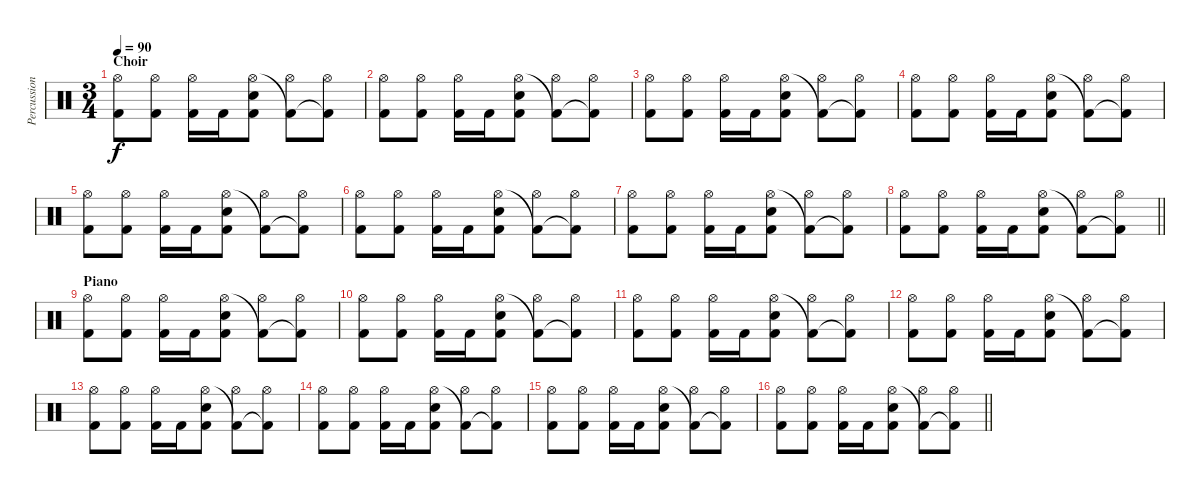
\track ("Percussioni" "Percussion") {instrument percussion}
\staff {score}
\articulation defaults
\ts (3 4)
\section ("" "Choir")
\tempo 90
\clef neutral
\ks c
("Hi-Hat (open)" "Kick (hit) 2").8{dy f} ("Hi-Hat (open)" "Kick (hit) 2").8 ("Hi-Hat (open)" "Kick (hit) 2").16 "Kick (hit) 2".16 ("Snare (hit) 2" "Hi-Hat (open)" "Kick (hit) 2").8 ("Hi-Hat (open)" "Kick (hit) 2"{t}).8 ("Hi-Hat (open)" "Kick (hit) 2"{t}).8 |
("Hi-Hat (open)" "Kick (hit) 2").8 ("Hi-Hat (open)" "Kick (hit) 2").8 ("Hi-Hat (open)" "Kick (hit) 2").16 "Kick (hit) 2".16 ("Snare (hit) 2" "Hi-Hat (open)" "Kick (hit) 2").8 ("Hi-Hat (open)" "Kick (hit) 2"{t}).8 ("Hi-Hat (open)" "Kick (hit) 2"{t}).8 |
("Hi-Hat (open)" "Kick (hit) 2").8 ("Hi-Hat (open)" "Kick (hit) 2").8 ("Hi-Hat (open)" "Kick (hit) 2").16 "Kick (hit) 2".16 ("Snare (hit) 2" "Hi-Hat (open)" "Kick (hit) 2").8 ("Hi-Hat (open)" "Kick (hit) 2"{t}).8 ("Hi-Hat (open)" "Kick (hit) 2"{t}).8 |
("Hi-Hat (open)" "Kick (hit) 2").8 ("Hi-Hat (open)" "Kick (hit) 2").8 ("Hi-Hat (open)" "Kick (hit) 2").16 "Kick (hit) 2".16 ("Snare (hit) 2" "Hi-Hat (open)" "Kick (hit) 2").8 ("Hi-Hat (open)" "Kick (hit) 2"{t}).8 ("Hi-Hat (open)" "Kick (hit) 2"{t}).8 |
("Hi-Hat (open)" "Kick (hit) 2").8 ("Hi-Hat (open)" "Kick (hit) 2").8 ("Hi-Hat (open)" "Kick (hit) 2").16 "Kick (hit) 2".16 ("Snare (hit) 2" "Hi-Hat (open)" "Kick (hit) 2").8 ("Hi-Hat (open)" "Kick (hit) 2"{t}).8 ("Hi-Hat (open)" "Kick (hit) 2"{t}).8 |
("Hi-Hat (open)" "Kick (hit) 2").8 ("Hi-Hat (open)" "Kick (hit) 2").8 ("Hi-Hat (open)" "Kick (hit) 2").16 "Kick (hit) 2".16 ("Snare (hit) 2" "Hi-Hat (open)" "Kick (hit) 2").8 ("Hi-Hat (open)" "Kick (hit) 2"{t}).8 ("Hi-Hat (open)" "Kick (hit) 2"{t}).8 |
("Hi-Hat (open)" "Kick (hit) 2").8 ("Hi-Hat (open)" "Kick (hit) 2").8 ("Hi-Hat (open)" "Kick (hit) 2").16 "Kick (hit) 2".16 ("Snare (hit) 2" "Hi-Hat (open)" "Kick (hit) 2").8 ("Hi-Hat (open)" "Kick (hit) 2"{t}).8 ("Hi-Hat (open)" "Kick (hit) 2"{t}).8 |
\barLineRight lightlight
("Hi-Hat (open)" "Kick (hit) 2").8 ("Hi-Hat (open)" "Kick (hit) 2").8 ("Hi-Hat (open)" "Kick (hit) 2").16 "Kick (hit) 2".16 ("Snare (hit) 2" "Hi-Hat (open)" "Kick (hit) 2").8 ("Hi-Hat (open)" "Kick (hit) 2"{t}).8 ("Hi-Hat (open)" "Kick (hit) 2"{t}).8 |
\section ("" "Piano")
("Hi-Hat (open)" "Kick (hit) 2").8 ("Hi-Hat (open)" "Kick (hit) 2").8 ("Hi-Hat (open)" "Kick (hit) 2").16 "Kick (hit) 2".16 ("Snare (hit) 2" "Hi-Hat (open)" "Kick (hit) 2").8 ("Hi-Hat (open)" "Kick (hit) 2"{t}).8 ("Hi-Hat (open)" "Kick (hit) 2"{t}).8 |
("Hi-Hat (open)" "Kick (hit) 2").8 ("Hi-Hat (open)" "Kick (hit) 2").8 ("Hi-Hat (open)" "Kick (hit) 2").16 "Kick (hit) 2".16 ("Snare (hit) 2" "Hi-Hat (open)" "Kick (hit) 2").8 ("Hi-Hat (open)" "Kick (hit) 2"{t}).8 ("Hi-Hat (open)" "Kick (hit) 2"{t}).8 |
("Hi-Hat (open)" "Kick (hit) 2").8 ("Hi-Hat (open)" "Kick (hit) 2").8 ("Hi-Hat (open)" "Kick (hit) 2").16 "Kick (hit) 2".16 ("Snare (hit) 2" "Hi-Hat (open)" "Kick (hit) 2").8 ("Hi-Hat (open)" "Kick (hit) 2"{t}).8 ("Hi-Hat (open)" "Kick (hit) 2"{t}).8 |
("Hi-Hat (open)" "Kick (hit) 2").8 ("Hi-Hat (open)" "Kick (hit) 2").8 ("Hi-Hat (open)" "Kick (hit) 2").16 "Kick (hit) 2".16 ("Snare (hit) 2" "Hi-Hat (open)" "Kick (hit) 2").8 ("Hi-Hat (open)" "Kick (hit) 2"{t}).8 ("Hi-Hat (open)" "Kick (hit) 2"{t}).8 |
("Hi-Hat (open)" "Kick (hit) 2").8 ("Hi-Hat (open)" "Kick (hit) 2").8 ("Hi-Hat (open)" "Kick (hit) 2").16 "Kick (hit) 2".16 ("Snare (hit) 2" "Hi-Hat (open)" "Kick (hit) 2").8 ("Hi-Hat (open)" "Kick (hit) 2"{t}).8 ("Hi-Hat (open)" "Kick (hit) 2"{t}).8 |
("Hi-Hat (open)" "Kick (hit) 2").8 ("Hi-Hat (open)" "Kick (hit) 2").8 ("Hi-Hat (open)" "Kick (hit) 2").16 "Kick (hit) 2".16 ("Snare (hit) 2" "Hi-Hat (open)" "Kick (hit) 2").8 ("Hi-Hat (open)" "Kick (hit) 2"{t}).8 ("Hi-Hat (open)" "Kick (hit) 2"{t}).8 |
("Hi-Hat (open)" "Kick (hit) 2").8 ("Hi-Hat (open)" "Kick (hit) 2").8 ("Hi-Hat (open)" "Kick (hit) 2").16 "Kick (hit) 2".16 ("Snare (hit) 2" "Hi-Hat (open)" "Kick (hit) 2").8 ("Hi-Hat (open)" "Kick (hit) 2"{t}).8 ("Hi-Hat (open)" "Kick (hit) 2"{t}).8 |
\barLineRight lightlight
("Hi-Hat (open)" "Kick (hit) 2").8 ("Hi-Hat (open)" "Kick (hit) 2").8 ("Hi-Hat (open)" "Kick (hit) 2").16 "Kick (hit) 2".16 ("Snare (hit) 2" "Hi-Hat (open)" "Kick (hit) 2").8 ("Hi-Hat (open)" "Kick (hit) 2"{t}).8 ("Hi-Hat (open)" "Kick (hit) 2"{t}).8
